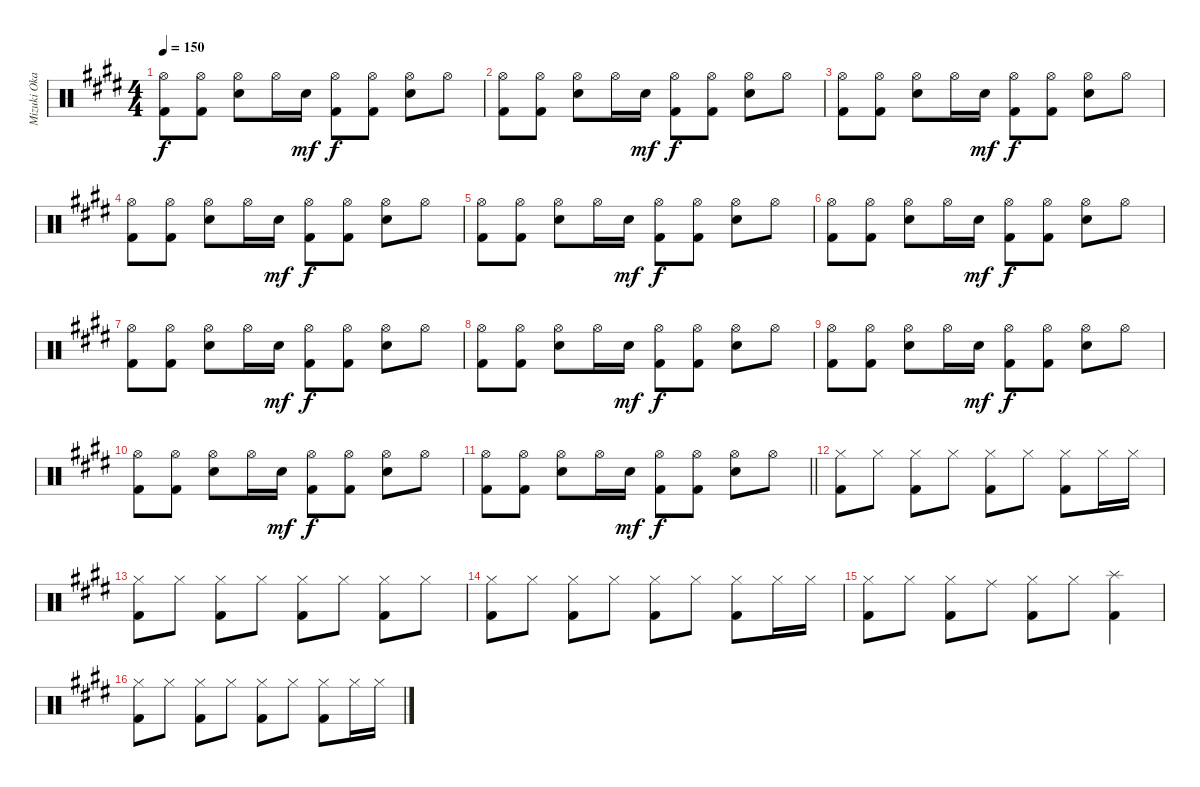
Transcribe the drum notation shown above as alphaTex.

\track ("Mizuki Okajima (Drums)" "Mizuki Oka") {instrument percussion}
\staff {score}
\articulation defaults
\ts (4 4)
\tempo 150
\clef neutral
\ks c#minor
("Hi-Hat (open)" "Kick (hit) 2").8{dy f} ("Hi-Hat (open)" "Kick (hit) 2").8 ("Hi-Hat (open)" "Snare (hit) 2").8 "Hi-Hat (open)".16 "Snare (hit) 2".16{dy mf} ("Hi-Hat (open)" "Kick (hit) 2").8{dy f} ("Hi-Hat (open)" "Kick (hit) 2").8 ("Hi-Hat (open)" "Snare (hit) 2").8 "Hi-Hat (open)".8 |
("Hi-Hat (open)" "Kick (hit) 2").8 ("Hi-Hat (open)" "Kick (hit) 2").8 ("Hi-Hat (open)" "Snare (hit) 2").8 "Hi-Hat (open)".16 "Snare (hit) 2".16{dy mf} ("Hi-Hat (open)" "Kick (hit) 2").8{dy f} ("Hi-Hat (open)" "Kick (hit) 2").8 ("Hi-Hat (open)" "Snare (hit) 2").8 "Hi-Hat (open)".8 |
("Hi-Hat (open)" "Kick (hit) 2").8 ("Hi-Hat (open)" "Kick (hit) 2").8 ("Hi-Hat (open)" "Snare (hit) 2").8 "Hi-Hat (open)".16 "Snare (hit) 2".16{dy mf} ("Hi-Hat (open)" "Kick (hit) 2").8{dy f} ("Hi-Hat (open)" "Kick (hit) 2").8 ("Hi-Hat (open)" "Snare (hit) 2").8 "Hi-Hat (open)".8 |
("Hi-Hat (open)" "Kick (hit) 2").8 ("Hi-Hat (open)" "Kick (hit) 2").8 ("Hi-Hat (open)" "Snare (hit) 2").8 "Hi-Hat (open)".16 "Snare (hit) 2".16{dy mf} ("Hi-Hat (open)" "Kick (hit) 2").8{dy f} ("Hi-Hat (open)" "Kick (hit) 2").8 ("Hi-Hat (open)" "Snare (hit) 2").8 "Hi-Hat (open)".8 |
("Hi-Hat (open)" "Kick (hit) 2").8 ("Hi-Hat (open)" "Kick (hit) 2").8 ("Hi-Hat (open)" "Snare (hit) 2").8 "Hi-Hat (open)".16 "Snare (hit) 2".16{dy mf} ("Hi-Hat (open)" "Kick (hit) 2").8{dy f} ("Hi-Hat (open)" "Kick (hit) 2").8 ("Hi-Hat (open)" "Snare (hit) 2").8 "Hi-Hat (open)".8 |
("Hi-Hat (open)" "Kick (hit) 2").8 ("Hi-Hat (open)" "Kick (hit) 2").8 ("Hi-Hat (open)" "Snare (hit) 2").8 "Hi-Hat (open)".16 "Snare (hit) 2".16{dy mf} ("Hi-Hat (open)" "Kick (hit) 2").8{dy f} ("Hi-Hat (open)" "Kick (hit) 2").8 ("Hi-Hat (open)" "Snare (hit) 2").8 "Hi-Hat (open)".8 |
("Hi-Hat (open)" "Kick (hit) 2").8 ("Hi-Hat (open)" "Kick (hit) 2").8 ("Hi-Hat (open)" "Snare (hit) 2").8 "Hi-Hat (open)".16 "Snare (hit) 2".16{dy mf} ("Hi-Hat (open)" "Kick (hit) 2").8{dy f} ("Hi-Hat (open)" "Kick (hit) 2").8 ("Hi-Hat (open)" "Snare (hit) 2").8 "Hi-Hat (open)".8 |
("Hi-Hat (open)" "Kick (hit) 2").8 ("Hi-Hat (open)" "Kick (hit) 2").8 ("Hi-Hat (open)" "Snare (hit) 2").8 "Hi-Hat (open)".16 "Snare (hit) 2".16{dy mf} ("Hi-Hat (open)" "Kick (hit) 2").8{dy f} ("Hi-Hat (open)" "Kick (hit) 2").8 ("Hi-Hat (open)" "Snare (hit) 2").8 "Hi-Hat (open)".8 |
("Hi-Hat (open)" "Kick (hit) 2").8 ("Hi-Hat (open)" "Kick (hit) 2").8 ("Hi-Hat (open)" "Snare (hit) 2").8 "Hi-Hat (open)".16 "Snare (hit) 2".16{dy mf} ("Hi-Hat (open)" "Kick (hit) 2").8{dy f} ("Hi-Hat (open)" "Kick (hit) 2").8 ("Hi-Hat (open)" "Snare (hit) 2").8 "Hi-Hat (open)".8 |
("Hi-Hat (open)" "Kick (hit) 2").8 ("Hi-Hat (open)" "Kick (hit) 2").8 ("Hi-Hat (open)" "Snare (hit) 2").8 "Hi-Hat (open)".16 "Snare (hit) 2".16{dy mf} ("Hi-Hat (open)" "Kick (hit) 2").8{dy f} ("Hi-Hat (open)" "Kick (hit) 2").8 ("Hi-Hat (open)" "Snare (hit) 2").8 "Hi-Hat (open)".8 |
\barLineRight lightlight
("Hi-Hat (open)" "Kick (hit) 2").8 ("Hi-Hat (open)" "Kick (hit) 2").8 ("Hi-Hat (open)" "Snare (hit) 2").8 "Hi-Hat (open)".16 "Snare (hit) 2".16{dy mf} ("Hi-Hat (open)" "Kick (hit) 2").8{dy f} ("Hi-Hat (open)" "Kick (hit) 2").8 ("Hi-Hat (open)" "Snare (hit) 2").8 "Hi-Hat (open)".8 |
("Hi-Hat (closed)" "Kick (hit) 2").8 "Hi-Hat (closed)".8 ("Hi-Hat (closed)" "Kick (hit) 2").8 "Hi-Hat (closed)".8 ("Hi-Hat (closed)" "Kick (hit) 2").8 "Hi-Hat (closed)".8 ("Hi-Hat (closed)" "Kick (hit) 2").8 "Hi-Hat (closed)".16 "Hi-Hat (closed)".16 |
("Hi-Hat (closed)" "Kick (hit) 2").8 "Hi-Hat (closed)".8 ("Hi-Hat (closed)" "Kick (hit) 2").8 "Hi-Hat (closed)".8 ("Hi-Hat (closed)" "Kick (hit) 2").8 "Hi-Hat (closed)".8 ("Hi-Hat (closed)" "Kick (hit) 2").8 "Hi-Hat (closed)".8 |
("Hi-Hat (closed)" "Kick (hit) 2").8 "Hi-Hat (closed)".8 ("Hi-Hat (closed)" "Kick (hit) 2").8 "Hi-Hat (closed)".8 ("Hi-Hat (closed)" "Kick (hit) 2").8 "Hi-Hat (closed)".8 ("Hi-Hat (closed)" "Kick (hit) 2").8 "Hi-Hat (closed)".16 "Hi-Hat (closed)".16 |
("Hi-Hat (closed)" "Kick (hit) 2").8 "Hi-Hat (closed)".8 ("Hi-Hat (closed)" "Kick (hit) 2").8 "Ride (middle)".8 ("Hi-Hat (closed)" "Kick (hit) 2").8 "Hi-Hat (closed)".8 ("Splash (hit)" "Kick (hit) 2").4 |
("Hi-Hat (closed)" "Kick (hit) 2").8 "Hi-Hat (closed)".8 ("Hi-Hat (closed)" "Kick (hit) 2").8 "Hi-Hat (closed)".8 ("Hi-Hat (closed)" "Kick (hit) 2").8 "Hi-Hat (closed)".8 ("Hi-Hat (closed)" "Kick (hit) 2").8 "Hi-Hat (closed)".16 "Hi-Hat (closed)".16
